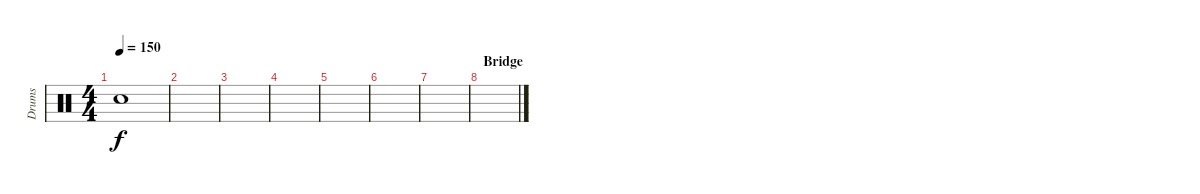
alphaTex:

\track ("Drums" "Drums") {instrument percussion}
\staff {score}
\articulation defaults
\ts (4 4)
\tempo 150
\clef neutral
\ks c "Snare (hit)"{t}.1{dy f}
|
|
|
|
|
|
|
\section ("" "Bridge")
